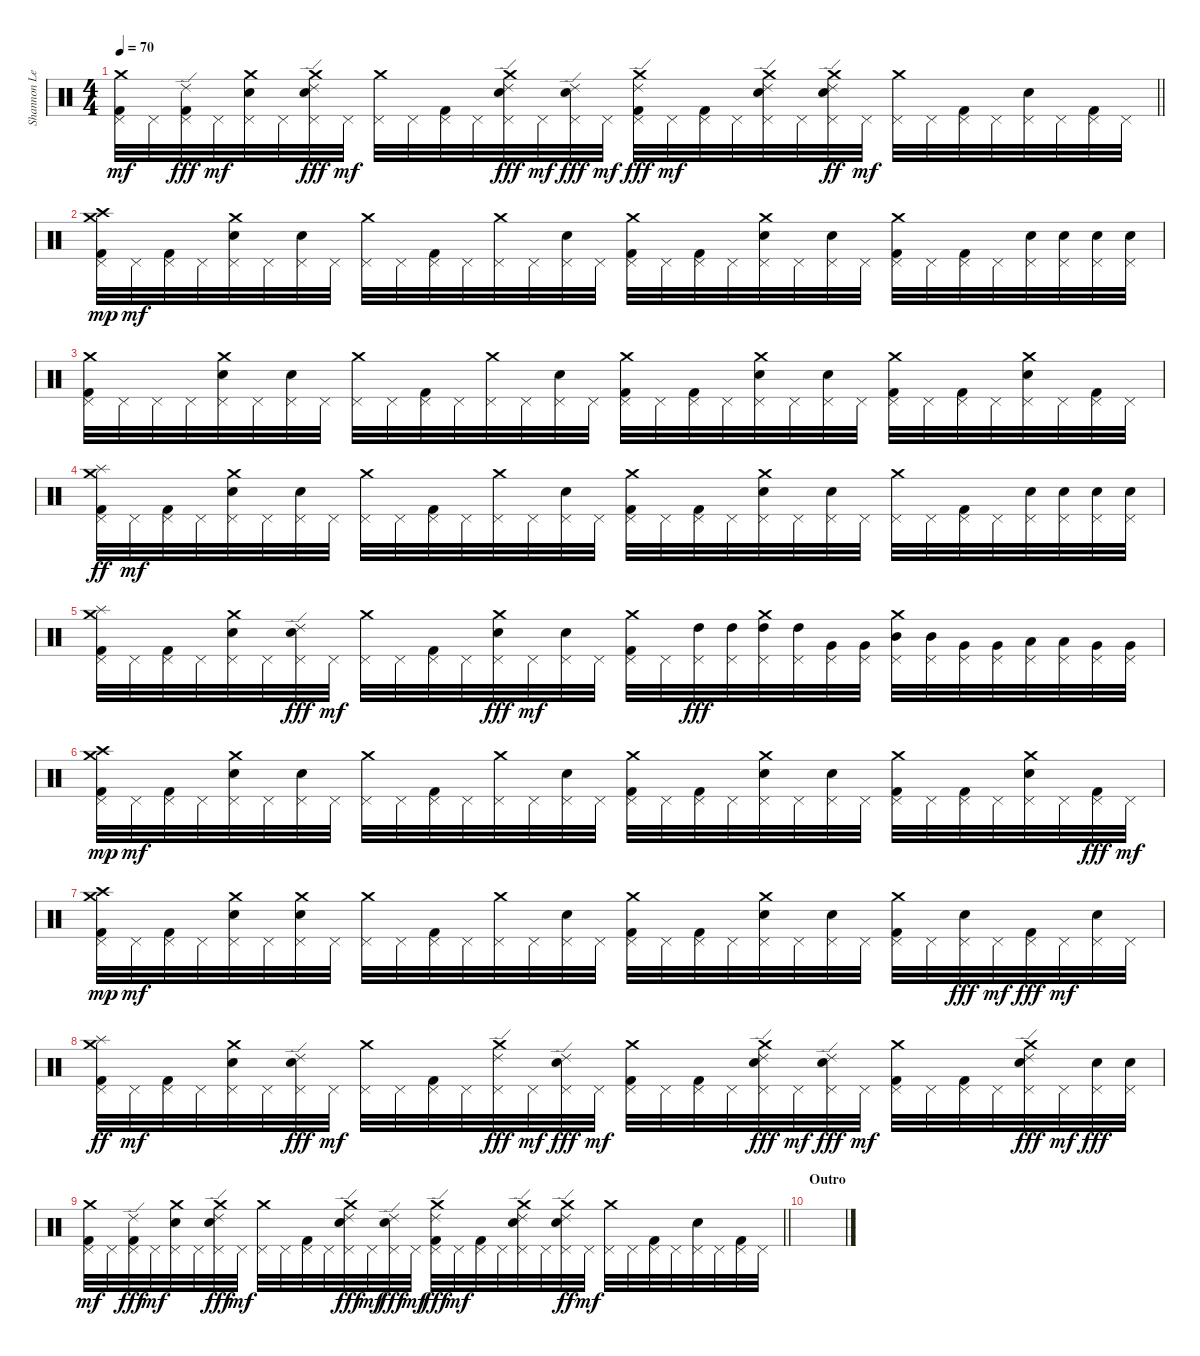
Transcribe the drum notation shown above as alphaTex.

\track ("Shannon Leto - Drums" "Shannon Le") {instrument percussion}
\staff {score}
\articulation defaults
\ts (4 4)
\tempo 70
\clef neutral
\barLineRight lightlight
\ks c
("Crash medium (hit)" "Pedal Hi-Hat (hit)" "Kick (hit) 2").32{dy mf} "Pedal Hi-Hat (hit)".32 ("Pedal Hi-Hat (hit)" "Ride (edge) 2" "Kick (hit) 2").32{dy fff} "Pedal Hi-Hat (hit)".32{dy mf} ("Crash medium (hit)" "Pedal Hi-Hat (hit)" "Electric Snare (hit)").32 "Pedal Hi-Hat (hit)".32 ("Crash medium (hit)" "Pedal Hi-Hat (hit)" "Electric Snare (hit)" "Ride (edge) 2").32{dy fff} "Pedal Hi-Hat (hit)".32{dy mf} ("Crash medium (hit)" "Pedal Hi-Hat (hit)").32 "Pedal Hi-Hat (hit)".32 ("Pedal Hi-Hat (hit)" "Kick (hit) 2").32 "Pedal Hi-Hat (hit)".32 ("Crash medium (hit)" "Pedal Hi-Hat (hit)" "Electric Snare (hit)" "Ride (edge) 2").32{dy fff} "Pedal Hi-Hat (hit)".32{dy mf} ("Pedal Hi-Hat (hit)" "Electric Snare (hit)" "Ride (edge) 2").32{dy fff} "Pedal Hi-Hat (hit)".32{dy mf} ("Crash medium (hit)" "Pedal Hi-Hat (hit)" "Ride (edge) 2" "Kick (hit) 2").32{dy fff} "Pedal Hi-Hat (hit)".32{dy mf} ("Pedal Hi-Hat (hit)" "Kick (hit) 2").32 "Pedal Hi-Hat (hit)".32 ("Crash medium (hit)" "Pedal Hi-Hat (hit)" "Electric Snare (hit)" "Ride (edge) 2").32 "Pedal Hi-Hat (hit)".32 ("Crash medium (hit)" "Pedal Hi-Hat (hit)" "Electric Snare (hit)" "Ride (edge) 2").32{dy ff} "Pedal Hi-Hat (hit)".32{dy mf} ("Crash medium (hit)" "Pedal Hi-Hat (hit)").32 "Pedal Hi-Hat (hit)".32 ("Pedal Hi-Hat (hit)" "Kick (hit) 2").32 "Pedal Hi-Hat (hit)".32 ("Pedal Hi-Hat (hit)" "Electric Snare (hit)").32 "Pedal Hi-Hat (hit)".32 ("Pedal Hi-Hat (hit)" "Kick (hit) 2").32 "Pedal Hi-Hat (hit)".32 |
\section ("" "")
("Crash medium (hit)" "Pedal Hi-Hat (hit)" "Crash high (hit)" "Kick (hit) 2").32{dy mp} "Pedal Hi-Hat (hit)".32{dy mf} ("Pedal Hi-Hat (hit)" "Kick (hit) 2").32 "Pedal Hi-Hat (hit)".32 ("Crash medium (hit)" "Pedal Hi-Hat (hit)" "Electric Snare (hit)").32 "Pedal Hi-Hat (hit)".32 ("Pedal Hi-Hat (hit)" "Electric Snare (hit)").32 "Pedal Hi-Hat (hit)".32 ("Crash medium (hit)" "Pedal Hi-Hat (hit)").32 "Pedal Hi-Hat (hit)".32 ("Pedal Hi-Hat (hit)" "Kick (hit) 2").32 "Pedal Hi-Hat (hit)".32 ("Crash medium (hit)" "Pedal Hi-Hat (hit)").32 "Pedal Hi-Hat (hit)".32 ("Pedal Hi-Hat (hit)" "Electric Snare (hit)").32 "Pedal Hi-Hat (hit)".32 ("Crash medium (hit)" "Pedal Hi-Hat (hit)" "Kick (hit) 2").32 "Pedal Hi-Hat (hit)".32 ("Pedal Hi-Hat (hit)" "Kick (hit) 2").32 "Pedal Hi-Hat (hit)".32 ("Crash medium (hit)" "Pedal Hi-Hat (hit)" "Electric Snare (hit)").32 "Pedal Hi-Hat (hit)".32 ("Pedal Hi-Hat (hit)" "Electric Snare (hit)").32 "Pedal Hi-Hat (hit)".32 ("Crash medium (hit)" "Pedal Hi-Hat (hit)" "Kick (hit) 2").32 "Pedal Hi-Hat (hit)".32 ("Pedal Hi-Hat (hit)" "Kick (hit) 2").32 "Pedal Hi-Hat (hit)".32 ("Pedal Hi-Hat (hit)" "Electric Snare (hit)").32 ("Pedal Hi-Hat (hit)" "Electric Snare (hit)").32 ("Pedal Hi-Hat (hit)" "Electric Snare (hit)").32 ("Pedal Hi-Hat (hit)" "Electric Snare (hit)").32 |
("Crash medium (hit)" "Pedal Hi-Hat (hit)" "Kick (hit) 2").32 "Pedal Hi-Hat (hit)".32 "Pedal Hi-Hat (hit)".32 "Pedal Hi-Hat (hit)".32 ("Crash medium (hit)" "Pedal Hi-Hat (hit)" "Electric Snare (hit)").32 "Pedal Hi-Hat (hit)".32 ("Pedal Hi-Hat (hit)" "Electric Snare (hit)").32 "Pedal Hi-Hat (hit)".32 ("Crash medium (hit)" "Pedal Hi-Hat (hit)").32 "Pedal Hi-Hat (hit)".32 ("Pedal Hi-Hat (hit)" "Kick (hit) 2").32 "Pedal Hi-Hat (hit)".32 ("Crash medium (hit)" "Pedal Hi-Hat (hit)").32 "Pedal Hi-Hat (hit)".32 ("Pedal Hi-Hat (hit)" "Electric Snare (hit)").32 "Pedal Hi-Hat (hit)".32 ("Crash medium (hit)" "Pedal Hi-Hat (hit)" "Kick (hit) 2").32 "Pedal Hi-Hat (hit)".32 ("Pedal Hi-Hat (hit)" "Kick (hit) 2").32 "Pedal Hi-Hat (hit)".32 ("Crash medium (hit)" "Pedal Hi-Hat (hit)" "Electric Snare (hit)").32 "Pedal Hi-Hat (hit)".32 ("Pedal Hi-Hat (hit)" "Electric Snare (hit)").32 "Pedal Hi-Hat (hit)".32 ("Crash medium (hit)" "Pedal Hi-Hat (hit)" "Kick (hit) 2").32 "Pedal Hi-Hat (hit)".32 ("Pedal Hi-Hat (hit)" "Kick (hit) 2").32 "Pedal Hi-Hat (hit)".32 ("Crash medium (hit)" "Pedal Hi-Hat (hit)" "Electric Snare (hit)").32 "Pedal Hi-Hat (hit)".32 ("Pedal Hi-Hat (hit)" "Kick (hit) 2").32 "Pedal Hi-Hat (hit)".32 |
("Crash medium (hit)" "Pedal Hi-Hat (hit)" "Splash (hit)" "Kick (hit) 2").32{dy ff} "Pedal Hi-Hat (hit)".32{dy mf} ("Pedal Hi-Hat (hit)" "Kick (hit) 2").32 "Pedal Hi-Hat (hit)".32 ("Crash medium (hit)" "Pedal Hi-Hat (hit)" "Electric Snare (hit)").32 "Pedal Hi-Hat (hit)".32 ("Pedal Hi-Hat (hit)" "Electric Snare (hit)").32 "Pedal Hi-Hat (hit)".32 ("Crash medium (hit)" "Pedal Hi-Hat (hit)").32 "Pedal Hi-Hat (hit)".32 ("Pedal Hi-Hat (hit)" "Kick (hit) 2").32 "Pedal Hi-Hat (hit)".32 ("Crash medium (hit)" "Pedal Hi-Hat (hit)").32 "Pedal Hi-Hat (hit)".32 ("Pedal Hi-Hat (hit)" "Electric Snare (hit)").32 "Pedal Hi-Hat (hit)".32 ("Crash medium (hit)" "Pedal Hi-Hat (hit)" "Kick (hit) 2").32 "Pedal Hi-Hat (hit)".32 ("Pedal Hi-Hat (hit)" "Kick (hit) 2").32 "Pedal Hi-Hat (hit)".32 ("Crash medium (hit)" "Pedal Hi-Hat (hit)" "Electric Snare (hit)").32 "Pedal Hi-Hat (hit)".32 ("Pedal Hi-Hat (hit)" "Electric Snare (hit)").32 "Pedal Hi-Hat (hit)".32 ("Crash medium (hit)" "Pedal Hi-Hat (hit)").32 "Pedal Hi-Hat (hit)".32 ("Pedal Hi-Hat (hit)" "Kick (hit) 2").32 "Pedal Hi-Hat (hit)".32 ("Pedal Hi-Hat (hit)" "Electric Snare (hit)").32 ("Pedal Hi-Hat (hit)" "Electric Snare (hit)").32 ("Pedal Hi-Hat (hit)" "Electric Snare (hit)").32 ("Pedal Hi-Hat (hit)" "Electric Snare (hit)").32 |
("Crash medium (hit)" "Pedal Hi-Hat (hit)" "Splash (hit)" "Kick (hit) 2").32 "Pedal Hi-Hat (hit)".32 ("Pedal Hi-Hat (hit)" "Kick (hit) 2").32 "Pedal Hi-Hat (hit)".32 ("Crash medium (hit)" "Pedal Hi-Hat (hit)" "Electric Snare (hit)").32 "Pedal Hi-Hat (hit)".32 ("Pedal Hi-Hat (hit)" "Electric Snare (hit)" "Ride (edge) 2").32{dy fff} "Pedal Hi-Hat (hit)".32{dy mf} ("Crash medium (hit)" "Pedal Hi-Hat (hit)").32 "Pedal Hi-Hat (hit)".32 ("Pedal Hi-Hat (hit)" "Kick (hit) 2").32 "Pedal Hi-Hat (hit)".32 ("Crash medium (hit)" "Pedal Hi-Hat (hit)" "Electric Snare (hit)").32{dy fff} "Pedal Hi-Hat (hit)".32{dy mf} ("Pedal Hi-Hat (hit)" "Electric Snare (hit)").32 "Pedal Hi-Hat (hit)".32 ("Crash medium (hit)" "Pedal Hi-Hat (hit)" "Kick (hit) 2").32 "Pedal Hi-Hat (hit)".32 ("Pedal Hi-Hat (hit)" "High Tom (hit)").32{dy fff} ("Pedal Hi-Hat (hit)" "High Tom (hit)").32 ("Crash medium (hit)" "Pedal Hi-Hat (hit)" "High Tom (hit)").32 ("Pedal Hi-Hat (hit)" "High Tom (hit)").32 ("Pedal Hi-Hat (hit)" "Very Low Tom (hit)").32 ("Pedal Hi-Hat (hit)" "Very Low Tom (hit)").32 ("Crash medium (hit)" "Pedal Hi-Hat (hit)" "Mid Tom (hit)").32 ("Pedal Hi-Hat (hit)" "Mid Tom (hit)").32 ("Pedal Hi-Hat (hit)" "Very Low Tom (hit)").32 ("Pedal Hi-Hat (hit)" "Very Low Tom (hit)").32 ("Pedal Hi-Hat (hit)" "Low Tom (hit)").32 ("Pedal Hi-Hat (hit)" "Low Tom (hit)").32 ("Pedal Hi-Hat (hit)" "Very Low Tom (hit)").32 ("Pedal Hi-Hat (hit)" "Very Low Tom (hit)").32 |
("Crash medium (hit)" "Pedal Hi-Hat (hit)" "Crash high (hit)" "Kick (hit) 2").32{dy mp} "Pedal Hi-Hat (hit)".32{dy mf} ("Pedal Hi-Hat (hit)" "Kick (hit) 2").32 "Pedal Hi-Hat (hit)".32 ("Crash medium (hit)" "Pedal Hi-Hat (hit)" "Electric Snare (hit)").32 "Pedal Hi-Hat (hit)".32 ("Pedal Hi-Hat (hit)" "Electric Snare (hit)").32 "Pedal Hi-Hat (hit)".32 ("Crash medium (hit)" "Pedal Hi-Hat (hit)").32 "Pedal Hi-Hat (hit)".32 ("Pedal Hi-Hat (hit)" "Kick (hit) 2").32 "Pedal Hi-Hat (hit)".32 ("Crash medium (hit)" "Pedal Hi-Hat (hit)").32 "Pedal Hi-Hat (hit)".32 ("Pedal Hi-Hat (hit)" "Electric Snare (hit)").32 "Pedal Hi-Hat (hit)".32 ("Crash medium (hit)" "Pedal Hi-Hat (hit)" "Kick (hit) 2").32 "Pedal Hi-Hat (hit)".32 ("Pedal Hi-Hat (hit)" "Kick (hit) 2").32 "Pedal Hi-Hat (hit)".32 ("Crash medium (hit)" "Pedal Hi-Hat (hit)" "Electric Snare (hit)").32 "Pedal Hi-Hat (hit)".32 ("Pedal Hi-Hat (hit)" "Electric Snare (hit)").32 "Pedal Hi-Hat (hit)".32 ("Crash medium (hit)" "Pedal Hi-Hat (hit)" "Kick (hit) 2").32 "Pedal Hi-Hat (hit)".32 ("Pedal Hi-Hat (hit)" "Kick (hit) 2").32 "Pedal Hi-Hat (hit)".32 ("Crash medium (hit)" "Pedal Hi-Hat (hit)" "Electric Snare (hit)").32 "Pedal Hi-Hat (hit)".32 ("Pedal Hi-Hat (hit)" "Kick (hit) 2").32{dy fff} "Pedal Hi-Hat (hit)".32{dy mf} |
("Crash medium (hit)" "Pedal Hi-Hat (hit)" "Crash high (hit)" "Kick (hit) 2").32{dy mp} "Pedal Hi-Hat (hit)".32{dy mf} ("Pedal Hi-Hat (hit)" "Kick (hit) 2").32 "Pedal Hi-Hat (hit)".32 ("Crash medium (hit)" "Pedal Hi-Hat (hit)" "Electric Snare (hit)").32 "Pedal Hi-Hat (hit)".32 ("Crash medium (hit)" "Pedal Hi-Hat (hit)" "Electric Snare (hit)").32 "Pedal Hi-Hat (hit)".32 ("Crash medium (hit)" "Pedal Hi-Hat (hit)").32 "Pedal Hi-Hat (hit)".32 ("Pedal Hi-Hat (hit)" "Kick (hit) 2").32 "Pedal Hi-Hat (hit)".32 ("Crash medium (hit)" "Pedal Hi-Hat (hit)").32 "Pedal Hi-Hat (hit)".32 ("Pedal Hi-Hat (hit)" "Electric Snare (hit)").32 "Pedal Hi-Hat (hit)".32 ("Crash medium (hit)" "Pedal Hi-Hat (hit)" "Kick (hit) 2").32 "Pedal Hi-Hat (hit)".32 ("Pedal Hi-Hat (hit)" "Kick (hit) 2").32 "Pedal Hi-Hat (hit)".32 ("Crash medium (hit)" "Pedal Hi-Hat (hit)" "Electric Snare (hit)").32 "Pedal Hi-Hat (hit)".32 ("Pedal Hi-Hat (hit)" "Electric Snare (hit)").32 "Pedal Hi-Hat (hit)".32 ("Crash medium (hit)" "Pedal Hi-Hat (hit)" "Kick (hit) 2").32 "Pedal Hi-Hat (hit)".32 ("Pedal Hi-Hat (hit)" "Electric Snare (hit)").32{dy fff} "Pedal Hi-Hat (hit)".32{dy mf} ("Pedal Hi-Hat (hit)" "Kick (hit) 2").32{dy fff} "Pedal Hi-Hat (hit)".32{dy mf} ("Pedal Hi-Hat (hit)" "Electric Snare (hit)").32 "Pedal Hi-Hat (hit)".32 |
("Crash medium (hit)" "Pedal Hi-Hat (hit)" "Splash (hit)" "Kick (hit) 2").32{dy ff} "Pedal Hi-Hat (hit)".32{dy mf} ("Pedal Hi-Hat (hit)" "Kick (hit) 2").32 "Pedal Hi-Hat (hit)".32 ("Crash medium (hit)" "Pedal Hi-Hat (hit)" "Electric Snare (hit)").32 "Pedal Hi-Hat (hit)".32 ("Pedal Hi-Hat (hit)" "Electric Snare (hit)" "Ride (edge) 2").32{dy fff} "Pedal Hi-Hat (hit)".32{dy mf} ("Crash medium (hit)" "Pedal Hi-Hat (hit)").32 "Pedal Hi-Hat (hit)".32 ("Pedal Hi-Hat (hit)" "Kick (hit) 2").32 "Pedal Hi-Hat (hit)".32 ("Crash medium (hit)" "Pedal Hi-Hat (hit)" "Ride (edge) 2").32{dy fff} "Pedal Hi-Hat (hit)".32{dy mf} ("Pedal Hi-Hat (hit)" "Electric Snare (hit)" "Ride (edge) 2").32{dy fff} "Pedal Hi-Hat (hit)".32{dy mf} ("Crash medium (hit)" "Pedal Hi-Hat (hit)" "Kick (hit) 2").32 "Pedal Hi-Hat (hit)".32 ("Pedal Hi-Hat (hit)" "Kick (hit) 2").32 "Pedal Hi-Hat (hit)".32 ("Crash medium (hit)" "Pedal Hi-Hat (hit)" "Electric Snare (hit)" "Ride (edge) 2").32{dy fff} "Pedal Hi-Hat (hit)".32{dy mf} ("Pedal Hi-Hat (hit)" "Electric Snare (hit)" "Ride (edge) 2").32{dy fff} "Pedal Hi-Hat (hit)".32{dy mf} ("Crash medium (hit)" "Pedal Hi-Hat (hit)" "Kick (hit) 2").32 "Pedal Hi-Hat (hit)".32 ("Pedal Hi-Hat (hit)" "Kick (hit) 2").32 "Pedal Hi-Hat (hit)".32 ("Crash medium (hit)" "Pedal Hi-Hat (hit)" "Electric Snare (hit)" "Ride (edge) 2").32{dy fff} "Pedal Hi-Hat (hit)".32{dy mf} ("Pedal Hi-Hat (hit)" "Electric Snare (hit)").32{dy fff} ("Pedal Hi-Hat (hit)" "Electric Snare (hit)").32 |
\barLineRight lightlight
("Crash medium (hit)" "Pedal Hi-Hat (hit)" "Kick (hit) 2").32{dy mf} "Pedal Hi-Hat (hit)".32 ("Pedal Hi-Hat (hit)" "Ride (edge) 2" "Kick (hit) 2").32{dy fff} "Pedal Hi-Hat (hit)".32{dy mf} ("Crash medium (hit)" "Pedal Hi-Hat (hit)" "Electric Snare (hit)").32 "Pedal Hi-Hat (hit)".32 ("Crash medium (hit)" "Pedal Hi-Hat (hit)" "Electric Snare (hit)" "Ride (edge) 2").32{dy fff} "Pedal Hi-Hat (hit)".32{dy mf} ("Crash medium (hit)" "Pedal Hi-Hat (hit)").32 "Pedal Hi-Hat (hit)".32 ("Pedal Hi-Hat (hit)" "Kick (hit) 2").32 "Pedal Hi-Hat (hit)".32 ("Crash medium (hit)" "Pedal Hi-Hat (hit)" "Electric Snare (hit)" "Ride (edge) 2").32{dy fff} "Pedal Hi-Hat (hit)".32{dy mf} ("Pedal Hi-Hat (hit)" "Electric Snare (hit)" "Ride (edge) 2").32{dy fff} "Pedal Hi-Hat (hit)".32{dy mf} ("Crash medium (hit)" "Pedal Hi-Hat (hit)" "Ride (edge) 2" "Kick (hit) 2").32{dy fff} "Pedal Hi-Hat (hit)".32{dy mf} ("Pedal Hi-Hat (hit)" "Kick (hit) 2").32 "Pedal Hi-Hat (hit)".32 ("Crash medium (hit)" "Pedal Hi-Hat (hit)" "Electric Snare (hit)" "Ride (edge) 2").32 "Pedal Hi-Hat (hit)".32 ("Crash medium (hit)" "Pedal Hi-Hat (hit)" "Electric Snare (hit)" "Ride (edge) 2").32{dy ff} "Pedal Hi-Hat (hit)".32{dy mf} ("Crash medium (hit)" "Pedal Hi-Hat (hit)").32 "Pedal Hi-Hat (hit)".32 ("Pedal Hi-Hat (hit)" "Kick (hit) 2").32 "Pedal Hi-Hat (hit)".32 ("Pedal Hi-Hat (hit)" "Electric Snare (hit)").32 "Pedal Hi-Hat (hit)".32 ("Pedal Hi-Hat (hit)" "Kick (hit) 2").32 "Pedal Hi-Hat (hit)".32 |
\section ("" "Outro")
